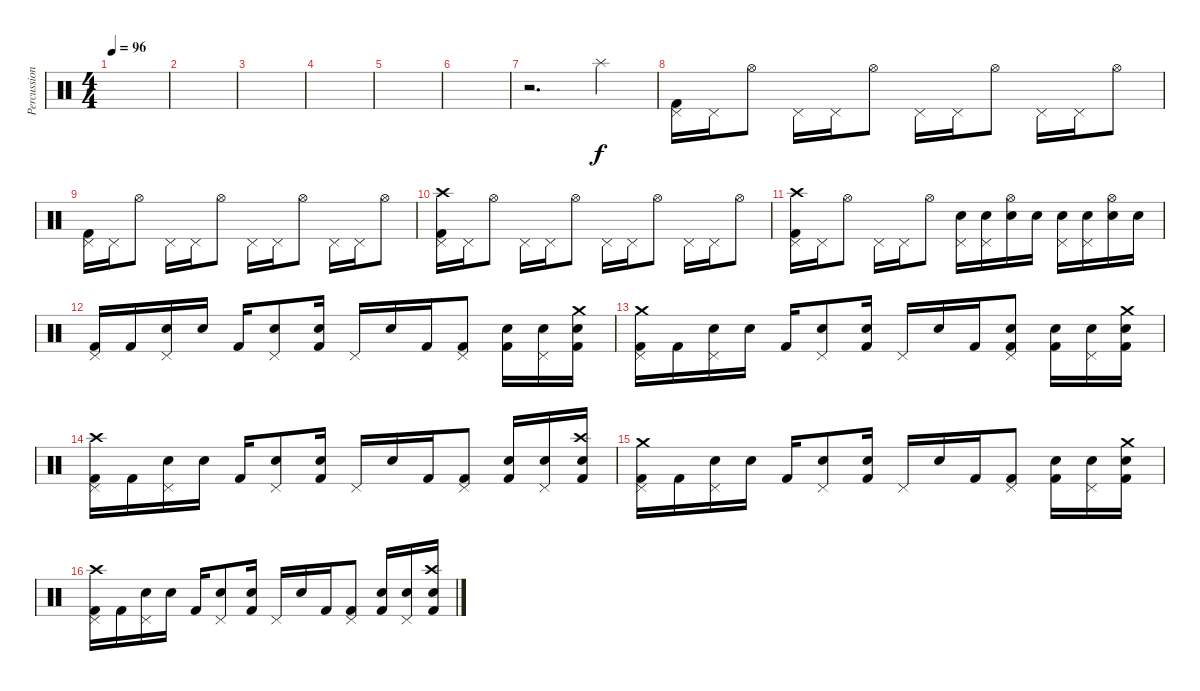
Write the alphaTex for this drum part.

\track ("Percussion" "Percussion") {instrument percussion bank 255}
\staff {score}
\articulation defaults
\ts (4 4)
\tempo 96
\clef neutral
\ks c
|
|
|
|
|
|
r.2{d} "Splash (hit)".4 |
("Pedal Hi-Hat (hit)" "Kick (hit) 2").16 "Pedal Hi-Hat (hit)".16 "Hi-Hat (open)".8 "Pedal Hi-Hat (hit)".16 "Pedal Hi-Hat (hit)".16 "Hi-Hat (open)".8 "Pedal Hi-Hat (hit)".16 "Pedal Hi-Hat (hit)".16 "Hi-Hat (open)".8 "Pedal Hi-Hat (hit)".16 "Pedal Hi-Hat (hit)".16 "Hi-Hat (open)".8 |
("Pedal Hi-Hat (hit)" "Kick (hit) 2").16 "Pedal Hi-Hat (hit)".16 "Hi-Hat (open)".8 "Pedal Hi-Hat (hit)".16 "Pedal Hi-Hat (hit)".16 "Hi-Hat (open)".8 "Pedal Hi-Hat (hit)".16 "Pedal Hi-Hat (hit)".16 "Hi-Hat (open)".8 "Pedal Hi-Hat (hit)".16 "Pedal Hi-Hat (hit)".16 "Hi-Hat (open)".8 |
("Crash high (hit)" "Pedal Hi-Hat (hit)" "Kick (hit) 2").16 "Pedal Hi-Hat (hit)".16 "Hi-Hat (open)".8 "Pedal Hi-Hat (hit)".16 "Pedal Hi-Hat (hit)".16 "Hi-Hat (open)".8 "Pedal Hi-Hat (hit)".16 "Pedal Hi-Hat (hit)".16 "Hi-Hat (open)".8 "Pedal Hi-Hat (hit)".16 "Pedal Hi-Hat (hit)".16 "Hi-Hat (open)".8 |
("Crash high (hit)" "Pedal Hi-Hat (hit)" "Kick (hit) 2").16 "Pedal Hi-Hat (hit)".16 "Hi-Hat (open)".8 "Pedal Hi-Hat (hit)".16 "Pedal Hi-Hat (hit)".16 "Hi-Hat (open)".8 ("Pedal Hi-Hat (hit)" "Electric Snare (hit)").16 ("Pedal Hi-Hat (hit)" "Electric Snare (hit)").16 ("Hi-Hat (open)" "Electric Snare (hit)").16 "Electric Snare (hit)".16 ("Pedal Hi-Hat (hit)" "Electric Snare (hit)").16 ("Pedal Hi-Hat (hit)" "Electric Snare (hit)").16 ("Hi-Hat (open)" "Electric Snare (hit)").16 "Electric Snare (hit)".16 |
("Pedal Hi-Hat (hit)" "Kick (hit) 2").16 "Kick (hit) 2".16 ("Pedal Hi-Hat (hit)" "Electric Snare (hit)").16 "Snare (hit)".16 "Kick (hit) 2".16 ("Pedal Hi-Hat (hit)" "Electric Snare (hit)").8 ("Electric Snare (hit)" "Kick (hit) 2").16 "Pedal Hi-Hat (hit)".16 "Electric Snare (hit)".16 "Kick (hit) 2".16 ("Pedal Hi-Hat (hit)" "Kick (hit) 2").8 ("Electric Snare (hit)" "Kick (hit) 2").16 ("Pedal Hi-Hat (hit)" "Electric Snare (hit)").16 ("Crash medium (hit)" "Electric Snare (hit)" "Kick (hit) 2").16 |
("Crash medium (hit)" "Pedal Hi-Hat (hit)" "Kick (hit) 2").16 "Kick (hit) 2".16 ("Pedal Hi-Hat (hit)" "Electric Snare (hit)").16 "Snare (hit)".16 "Kick (hit) 2".16 ("Pedal Hi-Hat (hit)" "Electric Snare (hit)").8 ("Electric Snare (hit)" "Kick (hit) 2").16 "Pedal Hi-Hat (hit)".16 "Electric Snare (hit)".16 "Kick (hit) 2".16 ("Pedal Hi-Hat (hit)" "Electric Snare (hit)" "Kick (hit) 2").8 ("Electric Snare (hit)" "Kick (hit) 2").16 ("Pedal Hi-Hat (hit)" "Electric Snare (hit)").16 ("Crash medium (hit)" "Electric Snare (hit)" "Kick (hit) 2").16 |
("Crash high (hit)" "Pedal Hi-Hat (hit)" "Kick (hit) 2").16 "Kick (hit) 2".16 ("Pedal Hi-Hat (hit)" "Electric Snare (hit)").16 "Snare (hit)".16 "Kick (hit) 2".16 ("Pedal Hi-Hat (hit)" "Electric Snare (hit)").8 ("Electric Snare (hit)" "Kick (hit) 2").16 "Pedal Hi-Hat (hit)".16 "Electric Snare (hit)".16 "Kick (hit) 2".16 ("Pedal Hi-Hat (hit)" "Kick (hit) 2").8 ("Electric Snare (hit)" "Kick (hit) 2").16 ("Pedal Hi-Hat (hit)" "Electric Snare (hit)").16 ("Crash high (hit)" "Electric Snare (hit)" "Kick (hit) 2").16 |
("Crash medium (hit)" "Pedal Hi-Hat (hit)" "Kick (hit) 2").16 "Kick (hit) 2".16 ("Pedal Hi-Hat (hit)" "Electric Snare (hit)").16 "Snare (hit)".16 "Kick (hit) 2".16 ("Pedal Hi-Hat (hit)" "Electric Snare (hit)").8 ("Electric Snare (hit)" "Kick (hit) 2").16 "Pedal Hi-Hat (hit)".16 "Electric Snare (hit)".16 "Kick (hit) 2".16 ("Pedal Hi-Hat (hit)" "Kick (hit) 2").8 ("Electric Snare (hit)" "Kick (hit) 2").16 ("Pedal Hi-Hat (hit)" "Electric Snare (hit)").16 ("Crash medium (hit)" "Electric Snare (hit)" "Kick (hit) 2").16 |
("Crash high (hit)" "Pedal Hi-Hat (hit)" "Kick (hit) 2").16 "Kick (hit) 2".16 ("Pedal Hi-Hat (hit)" "Electric Snare (hit)").16 "Snare (hit)".16 "Kick (hit) 2".16 ("Pedal Hi-Hat (hit)" "Electric Snare (hit)").8 ("Electric Snare (hit)" "Kick (hit) 2").16 "Pedal Hi-Hat (hit)".16 "Electric Snare (hit)".16 "Kick (hit) 2".16 ("Pedal Hi-Hat (hit)" "Kick (hit) 2").8 ("Electric Snare (hit)" "Kick (hit) 2").16 ("Pedal Hi-Hat (hit)" "Electric Snare (hit)").16 ("Crash high (hit)" "Electric Snare (hit)" "Kick (hit) 2").16
